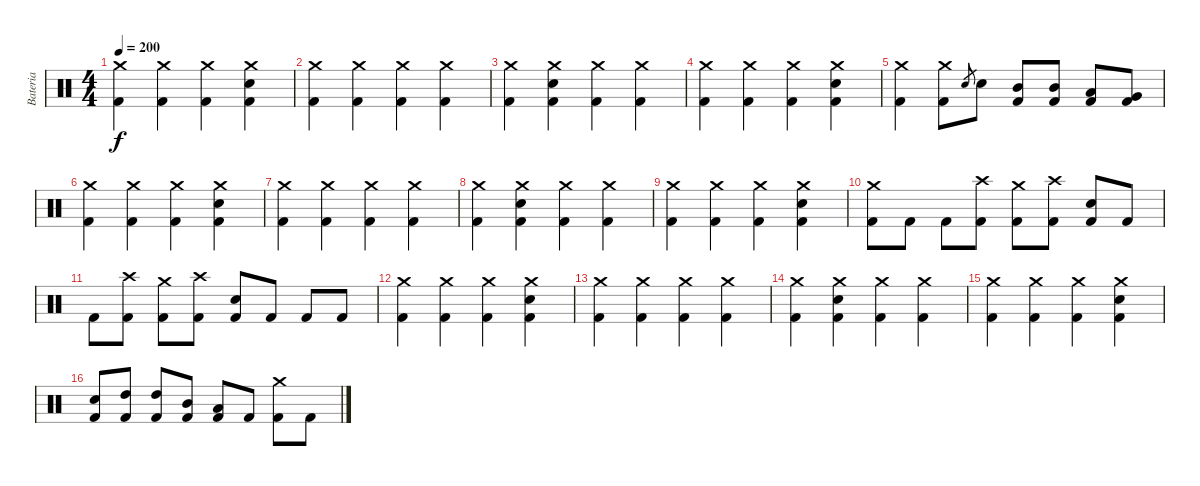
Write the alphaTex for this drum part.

\track ("Bateria" "Bateria") {instrument percussion}
\staff {score}
\articulation defaults
\ts (4 4)
\tempo 200
\clef neutral
\ks c
("Crash medium (hit)" "Kick (hit) 2").4{dy f} ("Crash medium (hit)" "Kick (hit) 2").4 ("Crash medium (hit)" "Kick (hit) 2").4 ("Crash medium (hit)" "Electric Snare (hit)" "Kick (hit) 2").4 |
("Crash medium (hit)" "Kick (hit) 2").4 ("Crash medium (hit)" "Kick (hit) 2").4 ("Crash medium (hit)" "Kick (hit) 2").4 ("Crash medium (hit)" "Kick (hit) 2").4 |
("Crash medium (hit)" "Kick (hit) 2").4 ("Crash medium (hit)" "Electric Snare (hit)" "Kick (hit) 2").4 ("Crash medium (hit)" "Kick (hit) 2").4 ("Crash medium (hit)" "Kick (hit) 2").4 |
("Crash medium (hit)" "Kick (hit) 2").4 ("Crash medium (hit)" "Kick (hit) 2").4 ("Crash medium (hit)" "Kick (hit) 2").4 ("Crash medium (hit)" "Electric Snare (hit)" "Kick (hit) 2").4 |
("Crash medium (hit)" "Kick (hit) 2").4 ("Crash medium (hit)" "Kick (hit) 2").8 "Electric Snare (hit)".8{gr} "Electric Snare (hit)".8 ("Mid Tom (hit)" "Kick (hit) 2").8 ("Mid Tom (hit)" "Kick (hit) 2").8 ("Low Tom (hit)" "Kick (hit) 2").8 ("Very Low Tom (hit)" "Kick (hit) 2").8 |
("Crash medium (hit)" "Kick (hit) 2").4 ("Crash medium (hit)" "Kick (hit) 2").4 ("Crash medium (hit)" "Kick (hit) 2").4 ("Crash medium (hit)" "Electric Snare (hit)" "Kick (hit) 2").4 |
("Crash medium (hit)" "Kick (hit) 2").4 ("Crash medium (hit)" "Kick (hit) 2").4 ("Crash medium (hit)" "Kick (hit) 2").4 ("Crash medium (hit)" "Kick (hit) 2").4 |
("Crash medium (hit)" "Kick (hit) 2").4 ("Crash medium (hit)" "Electric Snare (hit)" "Kick (hit) 2").4 ("Crash medium (hit)" "Kick (hit) 2").4 ("Crash medium (hit)" "Kick (hit) 2").4 |
("Crash medium (hit)" "Kick (hit) 2").4 ("Crash medium (hit)" "Kick (hit) 2").4 ("Crash medium (hit)" "Kick (hit) 2").4 ("Crash medium (hit)" "Electric Snare (hit)" "Kick (hit) 2").4 |
("Crash medium (hit)" "Kick (hit) 2").8 "Kick (hit) 2".8 "Kick (hit) 2".8 ("Crash high (hit)" "Kick (hit) 2").8 ("Crash medium (hit)" "Kick (hit) 2").8 ("Crash high (hit)" "Kick (hit) 2").8 ("Electric Snare (hit)" "Kick (hit) 2").8 "Kick (hit) 2".8 |
"Kick (hit) 2".8 ("Crash high (hit)" "Kick (hit) 2").8 ("Crash medium (hit)" "Kick (hit) 2").8 ("Crash high (hit)" "Kick (hit) 2").8 ("Electric Snare (hit)" "Kick (hit) 2").8 "Kick (hit) 2".8 "Kick (hit) 2".8 "Kick (hit) 2".8 |
("Crash medium (hit)" "Kick (hit) 2").4 ("Crash medium (hit)" "Kick (hit) 2").4 ("Crash medium (hit)" "Kick (hit) 2").4 ("Crash medium (hit)" "Electric Snare (hit)" "Kick (hit) 2").4 |
("Crash medium (hit)" "Kick (hit) 2").4 ("Crash medium (hit)" "Kick (hit) 2").4 ("Crash medium (hit)" "Kick (hit) 2").4 ("Crash medium (hit)" "Kick (hit) 2").4 |
("Crash medium (hit)" "Kick (hit) 2").4 ("Crash medium (hit)" "Electric Snare (hit)" "Kick (hit) 2").4 ("Crash medium (hit)" "Kick (hit) 2").4 ("Crash medium (hit)" "Kick (hit) 2").4 |
("Crash medium (hit)" "Kick (hit) 2").4 ("Crash medium (hit)" "Kick (hit) 2").4 ("Crash medium (hit)" "Kick (hit) 2").4 ("Crash medium (hit)" "Electric Snare (hit)" "Kick (hit) 2").4 |
("Electric Snare (hit)" "Kick (hit) 2").8 ("High Tom (hit)" "Kick (hit) 2").8 ("High Tom (hit)" "Kick (hit) 2").8 ("Mid Tom (hit)" "Kick (hit) 2").8 ("Low Tom (hit)" "Kick (hit) 2").8 "Kick (hit) 2".8 ("Crash medium (hit)" "Kick (hit) 2").8 "Kick (hit) 2".8
